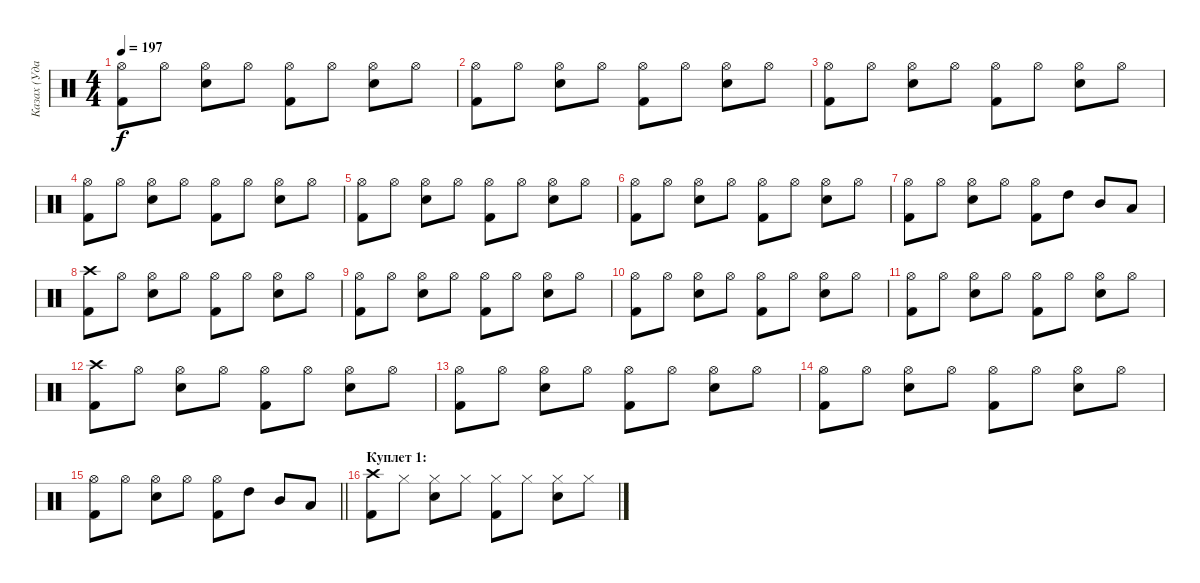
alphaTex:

\track ("Казах (Ударные)" "Казах (Уда") {instrument percussion}
\staff {score}
\articulation defaults
\ts (4 4)
\tempo 197
\clef neutral
\ks c
("Hi-Hat (open)" "Kick (hit) 2").8{dy f} "Hi-Hat (open)".8 ("Hi-Hat (open)" "Electric Snare (hit)").8 "Hi-Hat (open)".8 ("Hi-Hat (open)" "Kick (hit) 2").8 "Hi-Hat (open)".8 ("Hi-Hat (open)" "Electric Snare (hit)").8 "Hi-Hat (open)".8 |
("Hi-Hat (open)" "Kick (hit) 2").8 "Hi-Hat (open)".8 ("Hi-Hat (open)" "Electric Snare (hit)").8 "Hi-Hat (open)".8 ("Hi-Hat (open)" "Kick (hit) 2").8 "Hi-Hat (open)".8 ("Hi-Hat (open)" "Electric Snare (hit)").8 "Hi-Hat (open)".8 |
("Hi-Hat (open)" "Kick (hit) 2").8 "Hi-Hat (open)".8 ("Hi-Hat (open)" "Electric Snare (hit)").8 "Hi-Hat (open)".8 ("Hi-Hat (open)" "Kick (hit) 2").8 "Hi-Hat (open)".8 ("Hi-Hat (open)" "Electric Snare (hit)").8 "Hi-Hat (open)".8 |
("Hi-Hat (open)" "Kick (hit) 2").8 "Hi-Hat (open)".8 ("Hi-Hat (open)" "Electric Snare (hit)").8 "Hi-Hat (open)".8 ("Hi-Hat (open)" "Kick (hit) 2").8 "Hi-Hat (open)".8 ("Hi-Hat (open)" "Electric Snare (hit)").8 "Hi-Hat (open)".8 |
("Hi-Hat (open)" "Kick (hit) 2").8 "Hi-Hat (open)".8 ("Hi-Hat (open)" "Electric Snare (hit)").8 "Hi-Hat (open)".8 ("Hi-Hat (open)" "Kick (hit) 2").8 "Hi-Hat (open)".8 ("Hi-Hat (open)" "Electric Snare (hit)").8 "Hi-Hat (open)".8 |
("Hi-Hat (open)" "Kick (hit) 2").8 "Hi-Hat (open)".8 ("Hi-Hat (open)" "Electric Snare (hit)").8 "Hi-Hat (open)".8 ("Hi-Hat (open)" "Kick (hit) 2").8 "Hi-Hat (open)".8 ("Hi-Hat (open)" "Electric Snare (hit)").8 "Hi-Hat (open)".8 |
("Hi-Hat (open)" "Kick (hit) 2").8 "Hi-Hat (open)".8 ("Hi-Hat (open)" "Electric Snare (hit)").8 "Hi-Hat (open)".8 ("Hi-Hat (open)" "Kick (hit) 2").8 "High Tom (hit)".8 "Mid Tom (hit)".8 "Low Tom (hit)".8 |
("Crash high (hit)" "Kick (hit) 2").8 "Hi-Hat (open)".8 ("Hi-Hat (open)" "Electric Snare (hit)").8 "Hi-Hat (open)".8 ("Hi-Hat (open)" "Kick (hit) 2").8 "Hi-Hat (open)".8 ("Hi-Hat (open)" "Electric Snare (hit)").8 "Hi-Hat (open)".8 |
("Hi-Hat (open)" "Kick (hit) 2").8 "Hi-Hat (open)".8 ("Hi-Hat (open)" "Electric Snare (hit)").8 "Hi-Hat (open)".8 ("Hi-Hat (open)" "Kick (hit) 2").8 "Hi-Hat (open)".8 ("Hi-Hat (open)" "Electric Snare (hit)").8 "Hi-Hat (open)".8 |
("Hi-Hat (open)" "Kick (hit) 2").8 "Hi-Hat (open)".8 ("Hi-Hat (open)" "Electric Snare (hit)").8 "Hi-Hat (open)".8 ("Hi-Hat (open)" "Kick (hit) 2").8 "Hi-Hat (open)".8 ("Hi-Hat (open)" "Electric Snare (hit)").8 "Hi-Hat (open)".8 |
("Hi-Hat (open)" "Kick (hit) 2").8 "Hi-Hat (open)".8 ("Hi-Hat (open)" "Electric Snare (hit)").8 "Hi-Hat (open)".8 ("Hi-Hat (open)" "Kick (hit) 2").8 "Hi-Hat (open)".8 ("Hi-Hat (open)" "Electric Snare (hit)").8 "Hi-Hat (open)".8 |
("Crash high (hit)" "Kick (hit) 2").8 "Hi-Hat (open)".8 ("Hi-Hat (open)" "Electric Snare (hit)").8 "Hi-Hat (open)".8 ("Hi-Hat (open)" "Kick (hit) 2").8 "Hi-Hat (open)".8 ("Hi-Hat (open)" "Electric Snare (hit)").8 "Hi-Hat (open)".8 |
("Hi-Hat (open)" "Kick (hit) 2").8 "Hi-Hat (open)".8 ("Hi-Hat (open)" "Electric Snare (hit)").8 "Hi-Hat (open)".8 ("Hi-Hat (open)" "Kick (hit) 2").8 "Hi-Hat (open)".8 ("Hi-Hat (open)" "Electric Snare (hit)").8 "Hi-Hat (open)".8 |
("Hi-Hat (open)" "Kick (hit) 2").8 "Hi-Hat (open)".8 ("Hi-Hat (open)" "Electric Snare (hit)").8 "Hi-Hat (open)".8 ("Hi-Hat (open)" "Kick (hit) 2").8 "Hi-Hat (open)".8 ("Hi-Hat (open)" "Electric Snare (hit)").8 "Hi-Hat (open)".8 |
\barLineRight lightlight
("Hi-Hat (open)" "Kick (hit) 2").8 "Hi-Hat (open)".8 ("Hi-Hat (open)" "Electric Snare (hit)").8 "Hi-Hat (open)".8 ("Hi-Hat (open)" "Kick (hit) 2").8 "High Tom (hit)".8 "Mid Tom (hit)".8 "Low Tom (hit)".8 |
\section ("" "Куплет 1:")
("Crash high (hit)" "Kick (hit) 2").8 "Hi-Hat (closed)".8 ("Hi-Hat (closed)" "Electric Snare (hit)").8 "Hi-Hat (closed)".8 ("Hi-Hat (closed)" "Kick (hit) 2").8 "Hi-Hat (closed)".8 ("Hi-Hat (closed)" "Electric Snare (hit)").8 "Hi-Hat (closed)".8
